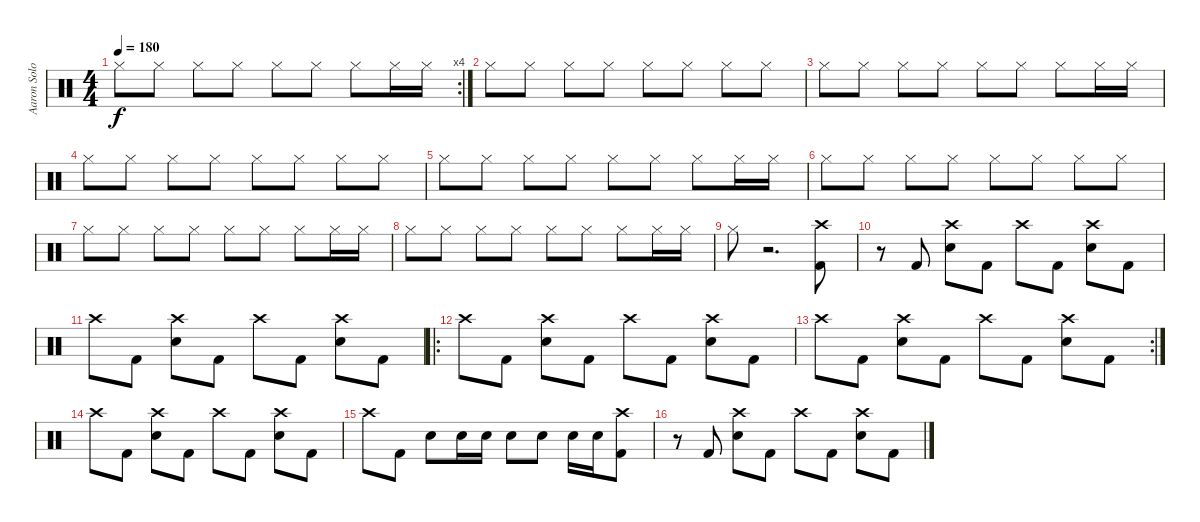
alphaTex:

\track ("Aaron Solowoniuk" "Aaron Solo") {instrument percussion}
\staff {score}
\articulation defaults
\rc 4
\ts (4 4)
\tempo 180
\clef neutral
\ks c "Hi-Hat (closed)".8{dy f} "Hi-Hat (closed)".8 "Hi-Hat (closed)".8 "Hi-Hat (closed)".8 "Hi-Hat (closed)".8 "Hi-Hat (closed)".8 "Hi-Hat (closed)".8 "Hi-Hat (closed)".16 "Hi-Hat (closed)".16
|
"Hi-Hat (closed)".8 "Hi-Hat (closed)".8 "Hi-Hat (closed)".8 "Hi-Hat (closed)".8 "Hi-Hat (closed)".8 "Hi-Hat (closed)".8 "Hi-Hat (closed)".8 "Hi-Hat (closed)".8 |
"Hi-Hat (closed)".8 "Hi-Hat (closed)".8 "Hi-Hat (closed)".8 "Hi-Hat (closed)".8 "Hi-Hat (closed)".8 "Hi-Hat (closed)".8 "Hi-Hat (closed)".8 "Hi-Hat (closed)".16 "Hi-Hat (closed)".16 |
"Hi-Hat (closed)".8 "Hi-Hat (closed)".8 "Hi-Hat (closed)".8 "Hi-Hat (closed)".8 "Hi-Hat (closed)".8 "Hi-Hat (closed)".8 "Hi-Hat (closed)".8 "Hi-Hat (closed)".8 |
"Hi-Hat (closed)".8 "Hi-Hat (closed)".8 "Hi-Hat (closed)".8 "Hi-Hat (closed)".8 "Hi-Hat (closed)".8 "Hi-Hat (closed)".8 "Hi-Hat (closed)".8 "Hi-Hat (closed)".16 "Hi-Hat (closed)".16 |
"Hi-Hat (closed)".8 "Hi-Hat (closed)".8 "Hi-Hat (closed)".8 "Hi-Hat (closed)".8 "Hi-Hat (closed)".8 "Hi-Hat (closed)".8 "Hi-Hat (closed)".8 "Hi-Hat (closed)".8 |
"Hi-Hat (closed)".8 "Hi-Hat (closed)".8 "Hi-Hat (closed)".8 "Hi-Hat (closed)".8 "Hi-Hat (closed)".8 "Hi-Hat (closed)".8 "Hi-Hat (closed)".8 "Hi-Hat (closed)".16 "Hi-Hat (closed)".16 |
"Hi-Hat (closed)".8 "Hi-Hat (closed)".8 "Hi-Hat (closed)".8 "Hi-Hat (closed)".8 "Hi-Hat (closed)".8 "Hi-Hat (closed)".8 "Hi-Hat (closed)".8 "Hi-Hat (closed)".16 "Hi-Hat (closed)".16 |
"Hi-Hat (closed)".8 r.2{d} ("Crash high (hit)" "Kick (hit) 2").8 |
r.8 "Kick (hit) 2".8 ("Crash high (hit)" "Electric Snare (hit)").8 "Kick (hit) 2".8 "Crash high (hit)".8 "Kick (hit) 2".8 ("Crash high (hit)" "Electric Snare (hit)").8 "Kick (hit) 2".8 |
"Crash high (hit)".8 "Kick (hit) 2".8 ("Crash high (hit)" "Electric Snare (hit)").8 "Kick (hit) 2".8 "Crash high (hit)".8 "Kick (hit) 2".8 ("Crash high (hit)" "Electric Snare (hit)").8 "Kick (hit) 2".8 |
\ro "Crash high (hit)".8 "Kick (hit) 2".8
("Crash high (hit)" "Electric Snare (hit)").8 "Kick (hit) 2".8 "Crash high (hit)".8 "Kick (hit) 2".8 ("Crash high (hit)" "Electric Snare (hit)").8 "Kick (hit) 2".8 |
\rc 2 "Crash high (hit)".8 "Kick (hit) 2".8
("Crash high (hit)" "Electric Snare (hit)").8 "Kick (hit) 2".8 "Crash high (hit)".8 "Kick (hit) 2".8 ("Crash high (hit)" "Electric Snare (hit)").8 "Kick (hit) 2".8 |
"Crash high (hit)".8 "Kick (hit) 2".8 ("Crash high (hit)" "Electric Snare (hit)").8 "Kick (hit) 2".8 "Crash high (hit)".8 "Kick (hit) 2".8 ("Crash high (hit)" "Electric Snare (hit)").8 "Kick (hit) 2".8 |
"Crash high (hit)".8 "Kick (hit) 2".8 "Electric Snare (hit)".8 "Electric Snare (hit)".16 "Electric Snare (hit)".16 "Electric Snare (hit)".8 "Electric Snare (hit)".8 "Electric Snare (hit)".16 "Electric Snare (hit)".16 ("Crash high (hit)" "Kick (hit) 2").8 |
r.8 "Kick (hit) 2".8 ("Crash high (hit)" "Electric Snare (hit)").8 "Kick (hit) 2".8 "Crash high (hit)".8 "Kick (hit) 2".8 ("Crash high (hit)" "Electric Snare (hit)").8 "Kick (hit) 2".8
